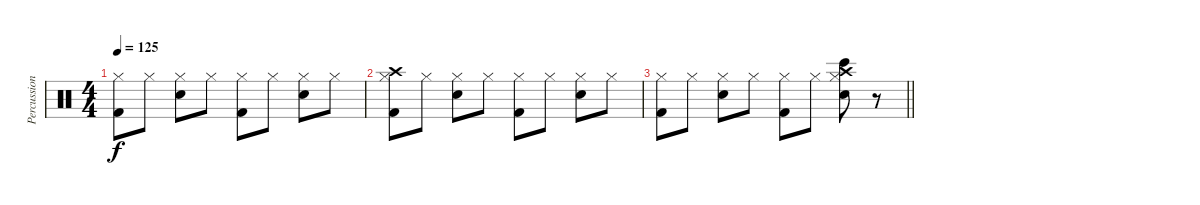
\track ("Percussion" "Percussion") {instrument percussion}
\staff {score}
\articulation defaults
\ts (4 4)
\tempo 125
\clef neutral
\ks c
("Hi-Hat (closed)" "Kick (hit) 2").8{dy f} "Hi-Hat (closed)".8 ("Hi-Hat (closed)" "Snare (hit) 2").8 "Hi-Hat (closed)".8 ("Hi-Hat (closed)" "Kick (hit) 2").8 "Hi-Hat (closed)".8 ("Hi-Hat (closed)" "Snare (hit) 2").8 "Hi-Hat (closed)".8 |
("Crash high (hit)" "Hi-Hat (closed)" "Kick (hit) 2").8 "Hi-Hat (closed)".8 ("Hi-Hat (closed)" "Snare (hit) 2").8 "Hi-Hat (closed)".8 ("Hi-Hat (closed)" "Kick (hit) 2").8 "Hi-Hat (closed)".8 ("Hi-Hat (closed)" "Snare (hit) 2").8 "Hi-Hat (closed)".8 |
\barLineRight lightlight
("Hi-Hat (closed)" "Kick (hit) 2").8 "Hi-Hat (closed)".8 ("Hi-Hat (closed)" "Snare (hit) 2").8 "Hi-Hat (closed)".8 ("Hi-Hat (closed)" "Kick (hit) 2").8 "Hi-Hat (closed)".8 ("Crash high (hit)" "Bongo High (hit)" "Hi-Hat (closed)" "Snare (hit) 2").8 r.8
